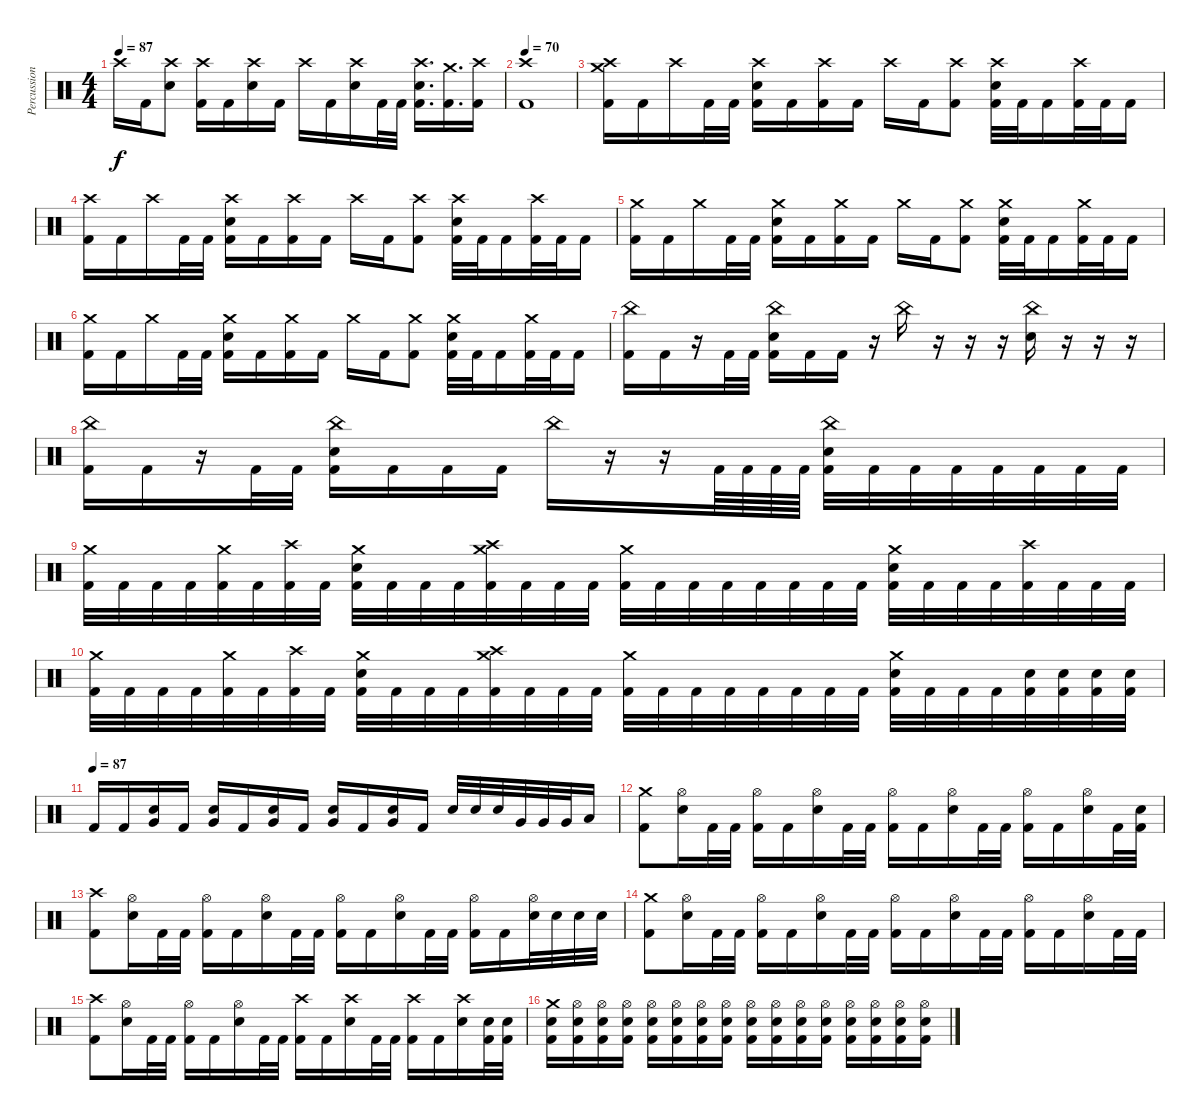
\track ("Percussion" "Percussion") {instrument percussion}
\staff {score}
\articulation defaults
\ts (4 4)
\tempo 87
\clef neutral
\ks c "Crash high (hit)".16{dy f} "Kick (hit) 2".16
("Crash high (hit)" "Electric Snare (hit)").8 ("Crash high (hit)" "Kick (hit) 2").16 "Kick (hit) 2".16 ("Crash high (hit)" "Electric Snare (hit)").16 "Kick (hit) 2".16 "Crash high (hit)".16 "Kick (hit) 2".16 ("Crash high (hit)" "Electric Snare (hit)").16 "Kick (hit) 2".32 "Kick (hit) 2".32 ("Crash high (hit)" "Electric Snare (hit)" "Kick (hit) 2").16{d} ("Crash medium (hit)" "Kick (hit) 2").16{d} ("Crash high (hit)" "Kick (hit) 2").16 |
\tempo 70
("Crash high (hit)" "Kick (hit) 2").1 |
("Crash medium (hit)" "Crash high (hit)" "Kick (hit) 2").16 "Kick (hit) 2".16 "Crash high (hit)".16 "Kick (hit) 2".32 "Kick (hit) 2".32 ("Crash high (hit)" "Electric Snare (hit)" "Kick (hit) 2").16 "Kick (hit) 2".16 ("Crash high (hit)" "Kick (hit) 2").16 "Kick (hit) 2".16 "Crash high (hit)".16 "Kick (hit) 2".16 ("Crash high (hit)" "Kick (hit) 2").8 ("Crash high (hit)" "Electric Snare (hit)" "Kick (hit) 2").32 "Kick (hit) 2".32 "Kick (hit) 2".16 ("Crash high (hit)" "Kick (hit) 2").32 "Kick (hit) 2".32 "Kick (hit) 2".16 |
("Crash high (hit)" "Kick (hit) 2").16 "Kick (hit) 2".16 "Crash high (hit)".16 "Kick (hit) 2".32 "Kick (hit) 2".32 ("Crash high (hit)" "Electric Snare (hit)" "Kick (hit) 2").16 "Kick (hit) 2".16 ("Crash high (hit)" "Kick (hit) 2").16 "Kick (hit) 2".16 "Crash high (hit)".16 "Kick (hit) 2".16 ("Crash high (hit)" "Kick (hit) 2").8 ("Crash high (hit)" "Electric Snare (hit)" "Kick (hit) 2").32 "Kick (hit) 2".32 "Kick (hit) 2".16 ("Crash high (hit)" "Kick (hit) 2").32 "Kick (hit) 2".32 "Kick (hit) 2".16 |
("Crash medium (hit)" "Kick (hit) 2").16 "Kick (hit) 2".16 "Crash medium (hit)".16 "Kick (hit) 2".32 "Kick (hit) 2".32 ("Crash medium (hit)" "Electric Snare (hit)" "Kick (hit) 2").16 "Kick (hit) 2".16 ("Crash medium (hit)" "Kick (hit) 2").16 "Kick (hit) 2".16 "Crash medium (hit)".16 "Kick (hit) 2".16 ("Crash medium (hit)" "Kick (hit) 2").8 ("Crash medium (hit)" "Electric Snare (hit)" "Kick (hit) 2").32 "Kick (hit) 2".32 "Kick (hit) 2".16 ("Crash medium (hit)" "Kick (hit) 2").32 "Kick (hit) 2".32 "Kick (hit) 2".16 |
("Crash medium (hit)" "Kick (hit) 2").16 "Kick (hit) 2".16 "Crash medium (hit)".16 "Kick (hit) 2".32 "Kick (hit) 2".32 ("Crash medium (hit)" "Electric Snare (hit)" "Kick (hit) 2").16 "Kick (hit) 2".16 ("Crash medium (hit)" "Kick (hit) 2").16 "Kick (hit) 2".16 "Crash medium (hit)".16 "Kick (hit) 2".16 ("Crash medium (hit)" "Kick (hit) 2").8 ("Crash medium (hit)" "Electric Snare (hit)" "Kick (hit) 2").32 "Kick (hit) 2".32 "Kick (hit) 2".16 ("Crash medium (hit)" "Kick (hit) 2").32 "Kick (hit) 2".32 "Kick (hit) 2".16 |
("China (hit)" "Kick (hit) 2").16 "Kick (hit) 2".16 r.16 "Kick (hit) 2".32 "Kick (hit) 2".32 ("China (hit)" "Electric Snare (hit)" "Kick (hit) 2").16 "Kick (hit) 2".16 "Kick (hit) 2".16 r.16 "China (hit)".16 r.16 r.16 r.16 ("China (hit)" "Electric Snare (hit)").16 r.16 r.16 r.16 |
("China (hit)" "Kick (hit) 2").16 "Kick (hit) 2".16 r.16 "Kick (hit) 2".32 "Kick (hit) 2".32 ("China (hit)" "Electric Snare (hit)" "Kick (hit) 2").16 "Kick (hit) 2".16 "Kick (hit) 2".16 "Kick (hit) 2".16 "China (hit)".16 r.16 r.16 "Kick (hit) 2".64 "Kick (hit) 2".64 "Kick (hit) 2".64 "Kick (hit) 2".64 ("China (hit)" "Electric Snare (hit)" "Kick (hit) 2").32 "Kick (hit) 2".32 "Kick (hit) 2".32 "Kick (hit) 2".32 "Kick (hit) 2".32 "Kick (hit) 2".32 "Kick (hit) 2".32 "Kick (hit) 2".32 |
("Crash medium (hit)" "Kick (hit) 2").32 "Kick (hit) 2".32 "Kick (hit) 2".32 "Kick (hit) 2".32 ("Crash medium (hit)" "Kick (hit) 2").32 "Kick (hit) 2".32 ("Crash high (hit)" "Kick (hit) 2").32 "Kick (hit) 2".32 ("Crash medium (hit)" "Electric Snare (hit)" "Kick (hit) 2").32 "Kick (hit) 2".32 "Kick (hit) 2".32 "Kick (hit) 2".32 ("Crash high (hit)" "Crash medium (hit)" "Kick (hit) 2").32 "Kick (hit) 2".32 "Kick (hit) 2".32 "Kick (hit) 2".32 ("Crash medium (hit)" "Kick (hit) 2").32 "Kick (hit) 2".32 "Kick (hit) 2".32 "Kick (hit) 2".32 "Kick (hit) 2".32 "Kick (hit) 2".32 "Kick (hit) 2".32 "Kick (hit) 2".32 ("Crash medium (hit)" "Electric Snare (hit)" "Kick (hit) 2").32 "Kick (hit) 2".32 "Kick (hit) 2".32 "Kick (hit) 2".32 ("Crash high (hit)" "Kick (hit) 2").32 "Kick (hit) 2".32 "Kick (hit) 2".32 "Kick (hit) 2".32 |
("Crash medium (hit)" "Kick (hit) 2").32 "Kick (hit) 2".32 "Kick (hit) 2".32 "Kick (hit) 2".32 ("Crash medium (hit)" "Kick (hit) 2").32 "Kick (hit) 2".32 ("Crash high (hit)" "Kick (hit) 2").32 "Kick (hit) 2".32 ("Crash medium (hit)" "Electric Snare (hit)" "Kick (hit) 2").32 "Kick (hit) 2".32 "Kick (hit) 2".32 "Kick (hit) 2".32 ("Crash high (hit)" "Crash medium (hit)" "Kick (hit) 2").32 "Kick (hit) 2".32 "Kick (hit) 2".32 "Kick (hit) 2".32 ("Crash medium (hit)" "Kick (hit) 2").32 "Kick (hit) 2".32 "Kick (hit) 2".32 "Kick (hit) 2".32 "Kick (hit) 2".32 "Kick (hit) 2".32 "Kick (hit) 2".32 "Kick (hit) 2".32 ("Crash medium (hit)" "Electric Snare (hit)" "Kick (hit) 2").32 "Kick (hit) 2".32 "Kick (hit) 2".32 "Kick (hit) 2".32 ("Electric Snare (hit)" "Kick (hit) 2").32 ("Electric Snare (hit)" "Kick (hit) 2").32 ("Electric Snare (hit)" "Kick (hit) 2").32 ("Electric Snare (hit)" "Kick (hit) 2").32 |
\tempo (87)
"Kick (hit) 2".16 "Kick (hit) 2".16 ("Electric Snare (hit)" "Very Low Tom (hit)").16 "Kick (hit) 2".16 ("Electric Snare (hit)" "Very Low Tom (hit)").16 "Kick (hit) 2".16 ("Electric Snare (hit)" "Very Low Tom (hit)").16 "Kick (hit) 2".16 ("Electric Snare (hit)" "Very Low Tom (hit)").16 "Kick (hit) 2".16 ("Electric Snare (hit)" "Very Low Tom (hit)").16 "Kick (hit) 2".16 "Electric Snare (hit)".32 "Electric Snare (hit)".32 "Electric Snare (hit)".32 "Very Low Tom (hit)".32 "Very Low Tom (hit)".32 "Very Low Tom (hit)".32 "Low Floor Tom (hit)".16 |
("Crash medium (hit)" "Kick (hit) 2").8 ("Hi-Hat (open)" "Electric Snare (hit)").16 "Kick (hit) 2".32 "Kick (hit) 2".32 ("Hi-Hat (open)" "Kick (hit) 2").16 "Kick (hit) 2".16 ("Hi-Hat (open)" "Electric Snare (hit)").16 "Kick (hit) 2".32 "Kick (hit) 2".32 ("Hi-Hat (open)" "Kick (hit) 2").16 "Kick (hit) 2".16 ("Hi-Hat (open)" "Electric Snare (hit)").16 "Kick (hit) 2".32 "Kick (hit) 2".32 ("Hi-Hat (open)" "Kick (hit) 2").16 "Kick (hit) 2".16 ("Hi-Hat (open)" "Electric Snare (hit)").16 "Kick (hit) 2".32 ("Electric Snare (hit)" "Kick (hit) 2").32 |
("Crash high (hit)" "Kick (hit) 2").8 ("Hi-Hat (open)" "Electric Snare (hit)").16 "Kick (hit) 2".32 "Kick (hit) 2".32 ("Hi-Hat (open)" "Kick (hit) 2").16 "Kick (hit) 2".16 ("Hi-Hat (open)" "Electric Snare (hit)").16 "Kick (hit) 2".32 "Kick (hit) 2".32 ("Hi-Hat (open)" "Kick (hit) 2").16 "Kick (hit) 2".16 ("Hi-Hat (open)" "Electric Snare (hit)").16 "Kick (hit) 2".32 "Kick (hit) 2".32 ("Hi-Hat (open)" "Kick (hit) 2").16 "Kick (hit) 2".16 ("Hi-Hat (open)" "Electric Snare (hit)").32 "Electric Snare (hit)".32 "Electric Snare (hit)".32 "Electric Snare (hit)".32 |
("Crash medium (hit)" "Kick (hit) 2").8 ("Hi-Hat (open)" "Electric Snare (hit)").16 "Kick (hit) 2".32 "Kick (hit) 2".32 ("Hi-Hat (open)" "Kick (hit) 2").16 "Kick (hit) 2".16 ("Hi-Hat (open)" "Electric Snare (hit)").16 "Kick (hit) 2".32 "Kick (hit) 2".32 ("Hi-Hat (open)" "Kick (hit) 2").16 "Kick (hit) 2".16 ("Hi-Hat (open)" "Electric Snare (hit)").16 "Kick (hit) 2".32 "Kick (hit) 2".32 ("Hi-Hat (open)" "Kick (hit) 2").16 "Kick (hit) 2".16 ("Hi-Hat (open)" "Electric Snare (hit)").16 "Kick (hit) 2".32 "Kick (hit) 2".32 |
("Crash high (hit)" "Kick (hit) 2").8 ("Hi-Hat (open)" "Electric Snare (hit)").16 "Kick (hit) 2".32 "Kick (hit) 2".32 ("Hi-Hat (open)" "Kick (hit) 2").16 "Kick (hit) 2".16 ("Hi-Hat (open)" "Electric Snare (hit)").16 "Kick (hit) 2".32 "Kick (hit) 2".32 ("Crash high (hit)" "Kick (hit) 2").16 "Kick (hit) 2".16 ("Crash high (hit)" "Electric Snare (hit)").16 "Kick (hit) 2".32 "Kick (hit) 2".32 ("Crash high (hit)" "Kick (hit) 2").16 "Kick (hit) 2".16 ("Crash high (hit)" "Electric Snare (hit)").16 ("Electric Snare (hit)" "Kick (hit) 2").32 ("Electric Snare (hit)" "Kick (hit) 2").32 |
("Crash medium (hit)" "Electric Snare (hit)" "Kick (hit) 2").16 ("Hi-Hat (open)" "Electric Snare (hit)" "Kick (hit) 2").16 ("Hi-Hat (open)" "Electric Snare (hit)" "Kick (hit) 2").16 ("Hi-Hat (open)" "Electric Snare (hit)" "Kick (hit) 2").16 ("Hi-Hat (open)" "Electric Snare (hit)" "Kick (hit) 2").16 ("Hi-Hat (open)" "Electric Snare (hit)" "Kick (hit) 2").16 ("Hi-Hat (open)" "Electric Snare (hit)" "Kick (hit) 2").16 ("Hi-Hat (open)" "Electric Snare (hit)" "Kick (hit) 2").16 ("Hi-Hat (open)" "Electric Snare (hit)" "Kick (hit) 2").16 ("Hi-Hat (open)" "Electric Snare (hit)" "Kick (hit) 2").16 ("Hi-Hat (open)" "Electric Snare (hit)" "Kick (hit) 2").16 ("Hi-Hat (open)" "Electric Snare (hit)" "Kick (hit) 2").16 ("Hi-Hat (open)" "Electric Snare (hit)" "Kick (hit) 2").16 ("Hi-Hat (open)" "Electric Snare (hit)" "Kick (hit) 2").16 ("Hi-Hat (open)" "Electric Snare (hit)" "Kick (hit) 2").16 ("Hi-Hat (open)" "Electric Snare (hit)" "Kick (hit) 2").16
